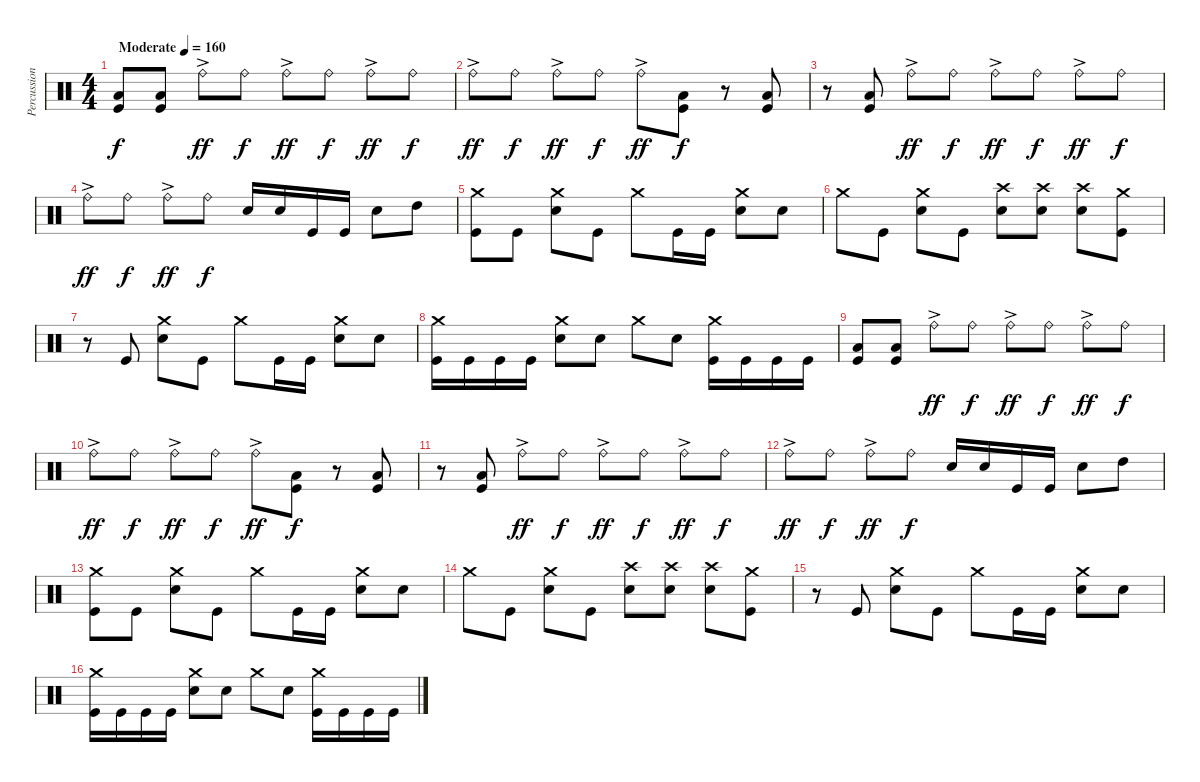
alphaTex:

\track ("Percussion" "Percussion") {instrument percussion}
\staff {score}
\articulation defaults
\ts (4 4)
\tempo (160 "Moderate")
\clef neutral
\ks c
("Low Floor Tom (hit)" "Kick (hit)").8{dy f} ("Low Floor Tom (hit)" "Kick (hit)").8 "Ride (bell)"{ac}.8{dy ff} "Ride (bell)".8{dy f} "Ride (bell)"{ac}.8{dy ff} "Ride (bell)".8{dy f} "Ride (bell)"{ac}.8{dy ff} "Ride (bell)".8{dy f} |
"Ride (bell)"{ac}.8{dy ff} "Ride (bell)".8{dy f} "Ride (bell)"{ac}.8{dy ff} "Ride (bell)".8{dy f} "Ride (bell)"{ac}.8{dy ff} ("Low Floor Tom (hit)" "Kick (hit)").8{dy f} r.8 ("Low Floor Tom (hit)" "Kick (hit)").8 |
r.8 ("Low Floor Tom (hit)" "Kick (hit)").8 "Ride (bell)"{ac}.8{dy ff} "Ride (bell)".8{dy f} "Ride (bell)"{ac}.8{dy ff} "Ride (bell)".8{dy f} "Ride (bell)"{ac}.8{dy ff} "Ride (bell)".8{dy f} |
"Ride (bell)"{ac}.8{dy ff} "Ride (bell)".8{dy f} "Ride (bell)"{ac}.8{dy ff} "Ride (bell)".8{dy f} "Snare (hit) 2".16 "Snare (hit) 2".16 "Kick (hit)".16 "Kick (hit)".16 "Snare (hit) 2".8 "High Tom (hit)".8 |
("Crash medium (hit)" "Kick (hit)").8 "Kick (hit)".8 ("Crash medium (hit)" "Snare (hit) 2").8 "Kick (hit)".8 "Crash medium (hit)".8 "Kick (hit)".16 "Kick (hit)".16 ("Crash medium (hit)" "Snare (hit) 2").8 "Snare (hit) 2".8 |
"Crash medium (hit)".8 "Kick (hit)".8 ("Crash medium (hit)" "Snare (hit) 2").8 "Kick (hit)".8 ("Crash high (hit)" "Snare (hit) 2").8 ("Crash high (hit)" "Snare (hit) 2").8 ("Crash high (hit)" "Snare (hit) 2").8 ("Crash medium (hit)" "Kick (hit)").8 |
r.8 "Kick (hit)".8 ("Crash medium (hit)" "Snare (hit) 2").8 "Kick (hit)".8 "Crash medium (hit)".8 "Kick (hit)".16 "Kick (hit)".16 ("Crash medium (hit)" "Snare (hit) 2").8 "Snare (hit) 2".8 |
("Crash medium (hit)" "Kick (hit)").16 "Kick (hit)".16 "Kick (hit)".16 "Kick (hit)".16 ("Crash medium (hit)" "Snare (hit) 2").8 "Snare (hit) 2".8 "Crash medium (hit)".8 "Snare (hit) 2".8 ("Crash medium (hit)" "Kick (hit)").16 "Kick (hit)".16 "Kick (hit)".16 "Kick (hit)".16 |
("Low Floor Tom (hit)" "Kick (hit)").8 ("Low Floor Tom (hit)" "Kick (hit)").8 "Ride (bell)"{ac}.8{dy ff} "Ride (bell)".8{dy f} "Ride (bell)"{ac}.8{dy ff} "Ride (bell)".8{dy f} "Ride (bell)"{ac}.8{dy ff} "Ride (bell)".8{dy f} |
"Ride (bell)"{ac}.8{dy ff} "Ride (bell)".8{dy f} "Ride (bell)"{ac}.8{dy ff} "Ride (bell)".8{dy f} "Ride (bell)"{ac}.8{dy ff} ("Low Floor Tom (hit)" "Kick (hit)").8{dy f} r.8 ("Low Floor Tom (hit)" "Kick (hit)").8 |
r.8 ("Low Floor Tom (hit)" "Kick (hit)").8 "Ride (bell)"{ac}.8{dy ff} "Ride (bell)".8{dy f} "Ride (bell)"{ac}.8{dy ff} "Ride (bell)".8{dy f} "Ride (bell)"{ac}.8{dy ff} "Ride (bell)".8{dy f} |
"Ride (bell)"{ac}.8{dy ff} "Ride (bell)".8{dy f} "Ride (bell)"{ac}.8{dy ff} "Ride (bell)".8{dy f} "Snare (hit) 2".16 "Snare (hit) 2".16 "Kick (hit)".16 "Kick (hit)".16 "Snare (hit) 2".8 "High Tom (hit)".8 |
("Crash medium (hit)" "Kick (hit)").8 "Kick (hit)".8 ("Crash medium (hit)" "Snare (hit) 2").8 "Kick (hit)".8 "Crash medium (hit)".8 "Kick (hit)".16 "Kick (hit)".16 ("Crash medium (hit)" "Snare (hit) 2").8 "Snare (hit) 2".8 |
"Crash medium (hit)".8 "Kick (hit)".8 ("Crash medium (hit)" "Snare (hit) 2").8 "Kick (hit)".8 ("Crash high (hit)" "Snare (hit) 2").8 ("Crash high (hit)" "Snare (hit) 2").8 ("Crash high (hit)" "Snare (hit) 2").8 ("Crash medium (hit)" "Kick (hit)").8 |
r.8 "Kick (hit)".8 ("Crash medium (hit)" "Snare (hit) 2").8 "Kick (hit)".8 "Crash medium (hit)".8 "Kick (hit)".16 "Kick (hit)".16 ("Crash medium (hit)" "Snare (hit) 2").8 "Snare (hit) 2".8 |
("Crash medium (hit)" "Kick (hit)").16 "Kick (hit)".16 "Kick (hit)".16 "Kick (hit)".16 ("Crash medium (hit)" "Snare (hit) 2").8 "Snare (hit) 2".8 "Crash medium (hit)".8 "Snare (hit) 2".8 ("Crash medium (hit)" "Kick (hit)").16 "Kick (hit)".16 "Kick (hit)".16 "Kick (hit)".16
